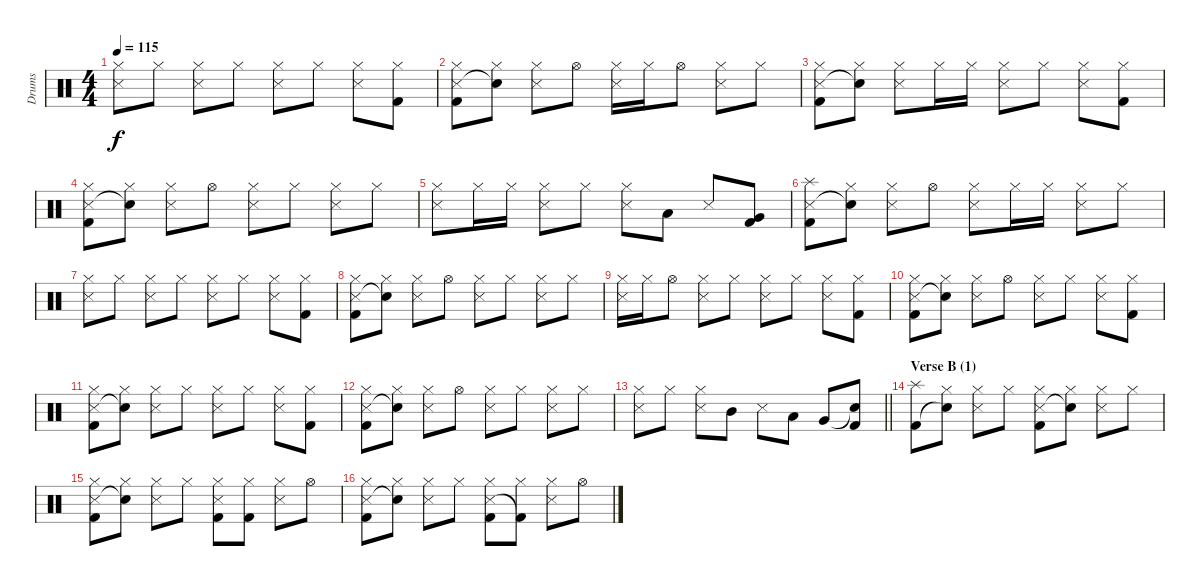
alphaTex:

\track ("Drums" "Drums") {instrument percussion}
\staff {score}
\articulation defaults
\ts (4 4)
\tempo 115
\clef neutral
\ks c
("Hi-Hat (closed)" "Snare (side stick) 3").8{dy f} "Hi-Hat (closed)".8 ("Hi-Hat (closed)" "Snare (side stick) 3").8 "Hi-Hat (closed)".8 ("Hi-Hat (closed)" "Snare (side stick) 3").8 "Hi-Hat (closed)".8 ("Hi-Hat (closed)" "Snare (side stick) 3").8 ("Hi-Hat (closed)" "Kick (hit) 2").8 |
("Hi-Hat (closed)" "Snare (side stick) 3" "Kick (hit) 2").8 ("Hi-Hat (closed)" "Snare (hit)"{t}).8 ("Hi-Hat (closed)" "Snare (side stick) 3").8 "Hi-Hat (open)".8 ("Hi-Hat (closed)" "Snare (side stick) 3").16 "Hi-Hat (closed)".16 "Hi-Hat (open)".8 ("Hi-Hat (closed)" "Snare (side stick) 3").8 "Hi-Hat (closed)".8 |
("Hi-Hat (closed)" "Snare (side stick) 3" "Kick (hit) 2").8 ("Hi-Hat (closed)" "Snare (hit)"{t}).8 ("Hi-Hat (closed)" "Snare (side stick) 3").8 "Hi-Hat (closed)".16 "Hi-Hat (closed)".16 ("Hi-Hat (closed)" "Snare (side stick) 3").8 "Hi-Hat (closed)".8 ("Hi-Hat (closed)" "Snare (side stick) 3").8 ("Hi-Hat (closed)" "Kick (hit) 2").8 |
("Hi-Hat (closed)" "Snare (side stick) 3" "Kick (hit) 2").8 ("Hi-Hat (closed)" "Snare (hit)"{t}).8 ("Hi-Hat (closed)" "Snare (side stick) 3").8 "Hi-Hat (open)".8 ("Hi-Hat (closed)" "Snare (side stick) 3").8 "Hi-Hat (closed)".8 ("Hi-Hat (closed)" "Snare (side stick) 3").8 "Hi-Hat (closed)".8 |
("Hi-Hat (closed)" "Snare (side stick) 3").8 "Hi-Hat (closed)".16 "Hi-Hat (closed)".16 ("Hi-Hat (closed)" "Snare (side stick) 3").8 "Hi-Hat (closed)".8 ("Hi-Hat (closed)" "Snare (side stick) 3").8 "Low Tom (hit)".8 "Snare (side stick) 3".8 ("Very Low Tom (hit)" "Kick (hit) 2").8 |
("Splash (hit)" "Snare (side stick) 3" "Kick (hit) 2").8 ("Hi-Hat (closed)" "Snare (hit)"{t}).8 ("Hi-Hat (closed)" "Snare (side stick) 3").8 "Hi-Hat (open)".8 ("Hi-Hat (closed)" "Snare (side stick) 3").8 "Hi-Hat (closed)".16 "Hi-Hat (closed)".16 ("Hi-Hat (closed)" "Snare (side stick) 3").8 "Hi-Hat (closed)".8 |
("Hi-Hat (closed)" "Snare (side stick) 3").8 "Hi-Hat (closed)".8 ("Hi-Hat (closed)" "Snare (side stick) 3").8 "Hi-Hat (closed)".8 ("Hi-Hat (closed)" "Snare (side stick) 3").8 "Hi-Hat (closed)".8 ("Hi-Hat (closed)" "Snare (side stick) 3").8 ("Hi-Hat (closed)" "Kick (hit) 2").8 |
("Hi-Hat (closed)" "Snare (side stick) 3" "Kick (hit) 2").8 ("Hi-Hat (closed)" "Snare (hit)"{t}).8 ("Hi-Hat (closed)" "Snare (side stick) 3").8 "Hi-Hat (open)".8 ("Hi-Hat (closed)" "Snare (side stick) 3").8 "Hi-Hat (closed)".8 ("Hi-Hat (closed)" "Snare (side stick) 3").8 "Hi-Hat (closed)".8 |
("Hi-Hat (closed)" "Snare (side stick) 3").16 "Hi-Hat (closed)".16 "Hi-Hat (open)".8 ("Hi-Hat (closed)" "Snare (side stick) 3").8 "Hi-Hat (closed)".8 ("Hi-Hat (closed)" "Snare (side stick) 3").8 "Hi-Hat (closed)".8 ("Hi-Hat (closed)" "Snare (side stick) 3").8 ("Hi-Hat (closed)" "Kick (hit) 2").8 |
("Hi-Hat (closed)" "Snare (side stick) 3" "Kick (hit) 2").8 ("Hi-Hat (closed)" "Snare (hit)"{t}).8 ("Hi-Hat (closed)" "Snare (side stick) 3").8 "Hi-Hat (open)".8 ("Hi-Hat (closed)" "Snare (side stick) 3").8 "Hi-Hat (closed)".8 ("Hi-Hat (closed)" "Snare (side stick) 3").8 ("Hi-Hat (closed)" "Kick (hit) 2").8 |
("Hi-Hat (closed)" "Snare (side stick) 3" "Kick (hit) 2").8 ("Hi-Hat (closed)" "Snare (hit)"{t}).8 ("Hi-Hat (closed)" "Snare (side stick) 3").8 "Hi-Hat (closed)".8 ("Hi-Hat (closed)" "Snare (side stick) 3").8 "Hi-Hat (closed)".8 ("Hi-Hat (closed)" "Snare (side stick) 3").8 ("Hi-Hat (closed)" "Kick (hit) 2").8 |
("Hi-Hat (closed)" "Snare (side stick) 3" "Kick (hit) 2").8 ("Hi-Hat (closed)" "Snare (hit)"{t}).8 ("Hi-Hat (closed)" "Snare (side stick) 3").8 "Hi-Hat (open)".8 ("Hi-Hat (closed)" "Snare (side stick) 3").8 "Hi-Hat (closed)".8 ("Hi-Hat (closed)" "Snare (side stick) 3").8 "Hi-Hat (closed)".8 |
\barLineRight lightlight
("Hi-Hat (closed)" "Snare (side stick) 3").8 "Hi-Hat (closed)".8 ("Hi-Hat (closed)" "Snare (side stick) 3").8 "Mid Tom (hit)".8 "Snare (side stick) 3".8 "Low Tom (hit)".8 "Very Low Tom (hit)".8 ("Snare (hit)"{t} "Kick (hit) 2").8 |
\section ("" "Verse B (1)")
("Splash (hit)" "Kick (hit) 2").8 ("Hi-Hat (closed)" "Snare (hit)"{t}).8 ("Hi-Hat (closed)" "Snare (side stick) 3").8 "Hi-Hat (closed)".8 ("Hi-Hat (closed)" "Snare (side stick) 3" "Kick (hit) 2").8 ("Hi-Hat (closed)" "Snare (hit)"{t}).8 ("Hi-Hat (closed)" "Snare (side stick) 3").8 "Hi-Hat (closed)".8 |
("Hi-Hat (closed)" "Snare (side stick) 3" "Kick (hit) 2").8 ("Hi-Hat (closed)" "Snare (hit)"{t}).8 ("Hi-Hat (closed)" "Snare (side stick) 3").8 "Hi-Hat (closed)".8 ("Hi-Hat (closed)" "Snare (side stick) 3" "Kick (hit) 2").8 ("Hi-Hat (closed)" "Kick (hit) 2").8 ("Hi-Hat (closed)" "Snare (side stick) 3").8 "Hi-Hat (open)".8 |
("Hi-Hat (closed)" "Snare (side stick) 3" "Kick (hit) 2").8 ("Hi-Hat (closed)" "Snare (hit)"{t}).8 ("Hi-Hat (closed)" "Snare (side stick) 3").8 "Hi-Hat (closed)".8 ("Hi-Hat (closed)" "Snare (side stick) 3" "Kick (hit) 2").8 ("Hi-Hat (closed)" "Kick (hit) 2"{t}).8 ("Hi-Hat (closed)" "Snare (side stick) 3").8 "Hi-Hat (open)".8
